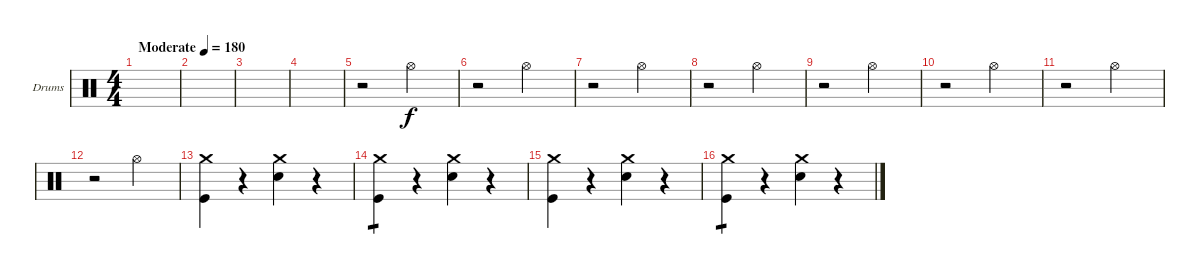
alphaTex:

\bracketExtendMode groupsimilarinstruments
\firstSystemTrackNameOrientation horizontal
\otherSystemsTrackNameOrientation horizontal
\track ("Drumkit" "Drums") {instrument percussion}
\staff {score}
\articulation defaults
\ts (4 4)
\beaming (8 2 2 2 2)
\tempo (180 "Moderate")
\clef neutral
\scale
0.474178
\ks c
|
\scale
0.262911 |
\scale
0.262911 |
\scale
0.333333 |
\scale
0.333333 r.2 "Hi-Hat (open)".2 |
\scale
0.333333 r.2 "Hi-Hat (open)".2 |
\scale
0.333333 r.2 "Hi-Hat (open)".2 |
\scale
0.333333 r.2 "Hi-Hat (open)".2 |
\scale
0.333333 r.2 "Hi-Hat (open)".2 |
\scale
0.333333 r.2 "Hi-Hat (open)".2 |
\scale
0.333333 r.2 "Hi-Hat (open)".2 |
\scale
0.333333 r.2 "Hi-Hat (open)".2 |
\scale
0.333333 ("Crash medium (hit)" "Kick (hit)").4{dy f} r.4 ("Crash medium (hit)" "Snare (hit) 2").4 r.4 |
\scale
0.333333 ("Crash medium (hit)" "Kick (hit)").4{tp 1} r.4 ("Crash medium (hit)" "Snare (hit) 2").4 r.4 |
\scale
0.333333 ("Crash medium (hit)" "Kick (hit)").4 r.4 ("Crash medium (hit)" "Snare (hit) 2").4 r.4 |
\scale
0.333333 ("Crash medium (hit)" "Kick (hit)").4{tp 1} r.4 ("Crash medium (hit)" "Snare (hit) 2").4 r.4
